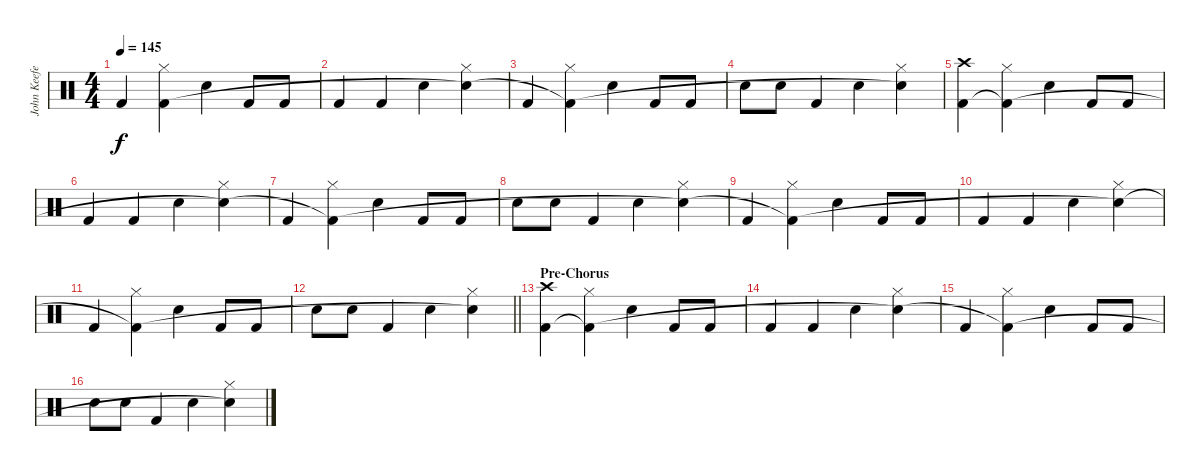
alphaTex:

\track ("John Keefe (Percussion)" "John Keefe") {instrument percussion}
\staff {score}
\articulation defaults
\ts (4 4)
\tempo 145
\clef neutral
\ks c "Kick (hit) 2".4{dy f}
("Hi-Hat (closed)" "Kick (hit) 2"{t}).4 "Snare (hit) 2".4 "Kick (hit) 2".8 "Kick (hit) 2".8 |
"Kick (hit) 2".4 "Kick (hit) 2".4 "Snare (hit) 2".4 ("Hi-Hat (closed)" "Snare (hit) 2"{t}).4 |
"Kick (hit) 2".4 ("Hi-Hat (closed)" "Kick (hit) 2"{t}).4 "Snare (hit) 2".4 "Kick (hit) 2".8 "Kick (hit) 2".8 |
"Snare (hit) 2".8 "Snare (hit) 2".8 "Kick (hit) 2".4 "Snare (hit) 2".4 ("Hi-Hat (closed)" "Snare (hit) 2"{t}).4 |
("Crash high (hit)" "Kick (hit) 2").4 ("Hi-Hat (closed)" "Kick (hit) 2"{t}).4 "Snare (hit) 2".4 "Kick (hit) 2".8 "Kick (hit) 2".8 |
"Kick (hit) 2".4 "Kick (hit) 2".4 "Snare (hit) 2".4 ("Hi-Hat (closed)" "Snare (hit) 2"{t}).4 |
"Kick (hit) 2".4 ("Hi-Hat (closed)" "Kick (hit) 2"{t}).4 "Snare (hit) 2".4 "Kick (hit) 2".8 "Kick (hit) 2".8 |
"Snare (hit) 2".8 "Snare (hit) 2".8 "Kick (hit) 2".4 "Snare (hit) 2".4 ("Hi-Hat (closed)" "Snare (hit) 2"{t}).4 |
"Kick (hit) 2".4 ("Hi-Hat (closed)" "Kick (hit) 2"{t}).4 "Snare (hit) 2".4 "Kick (hit) 2".8 "Kick (hit) 2".8 |
"Kick (hit) 2".4 "Kick (hit) 2".4 "Snare (hit) 2".4 ("Hi-Hat (closed)" "Snare (hit) 2"{t}).4 |
"Kick (hit) 2".4 ("Hi-Hat (closed)" "Kick (hit) 2"{t}).4 "Snare (hit) 2".4 "Kick (hit) 2".8 "Kick (hit) 2".8 |
\barLineRight lightlight "Snare (hit) 2".8 "Snare (hit) 2".8 "Kick (hit) 2".4 "Snare (hit) 2".4
("Hi-Hat (closed)" "Snare (hit) 2"{t}).4 |
\section ("" "Pre-Chorus")
("Crash high (hit)" "Kick (hit) 2").4 ("Hi-Hat (closed)" "Kick (hit) 2"{t}).4 "Snare (hit) 2".4 "Kick (hit) 2".8 "Kick (hit) 2".8 |
"Kick (hit) 2".4 "Kick (hit) 2".4 "Snare (hit) 2".4 ("Hi-Hat (closed)" "Snare (hit) 2"{t}).4 |
"Kick (hit) 2".4 ("Hi-Hat (closed)" "Kick (hit) 2"{t}).4 "Snare (hit) 2".4 "Kick (hit) 2".8 "Kick (hit) 2".8 |
"Snare (hit) 2".8 "Snare (hit) 2".8 "Kick (hit) 2".4 "Snare (hit) 2".4 ("Hi-Hat (closed)" "Snare (hit) 2"{t}).4
